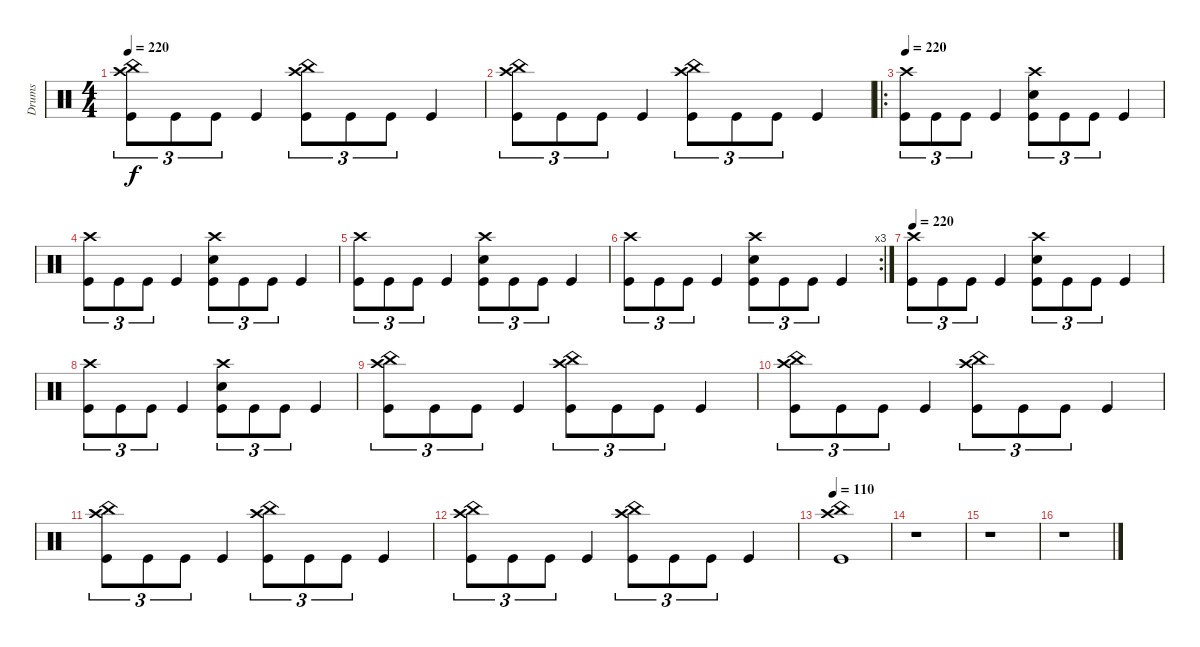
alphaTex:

\track ("Drums" "Drums") {instrument percussion}
\staff {score}
\articulation defaults
\ts (4 4)
\tempo 220
\clef neutral
\ks c
("Crash high (hit)" "China (hit)" "Kick (hit)").8{tu (3 2) dy f} "Kick (hit)".8{tu (3 2)} "Kick (hit)".8{tu (3 2)} "Kick (hit)".4 ("Crash high (hit)" "China (hit)" "Kick (hit)").8{tu (3 2)} "Kick (hit)".8{tu (3 2)} "Kick (hit)".8{tu (3 2)} "Kick (hit)".4 |
("Crash high (hit)" "China (hit)" "Kick (hit)").8{tu (3 2)} "Kick (hit)".8{tu (3 2)} "Kick (hit)".8{tu (3 2)} "Kick (hit)".4 ("Crash high (hit)" "China (hit)" "Kick (hit)").8{tu (3 2)} "Kick (hit)".8{tu (3 2)} "Kick (hit)".8{tu (3 2)} "Kick (hit)".4 |
\ro
\tempo 220
("Crash high (hit)" "Kick (hit)").8{tu (3 2)} "Kick (hit)".8{tu (3 2)} "Kick (hit)".8{tu (3 2)} "Kick (hit)".4 ("Crash high (hit)" "Snare (hit) 2" "Kick (hit)").8{tu (3 2)} "Kick (hit)".8{tu (3 2)} "Kick (hit)".8{tu (3 2)} "Kick (hit)".4 |
("Crash high (hit)" "Kick (hit)").8{tu (3 2)} "Kick (hit)".8{tu (3 2)} "Kick (hit)".8{tu (3 2)} "Kick (hit)".4 ("Crash high (hit)" "Snare (hit) 2" "Kick (hit)").8{tu (3 2)} "Kick (hit)".8{tu (3 2)} "Kick (hit)".8{tu (3 2)} "Kick (hit)".4 |
("Crash high (hit)" "Kick (hit)").8{tu (3 2)} "Kick (hit)".8{tu (3 2)} "Kick (hit)".8{tu (3 2)} "Kick (hit)".4 ("Crash high (hit)" "Snare (hit) 2" "Kick (hit)").8{tu (3 2)} "Kick (hit)".8{tu (3 2)} "Kick (hit)".8{tu (3 2)} "Kick (hit)".4 |
\rc 3
("Crash high (hit)" "Kick (hit)").8{tu (3 2)} "Kick (hit)".8{tu (3 2)} "Kick (hit)".8{tu (3 2)} "Kick (hit)".4 ("Crash high (hit)" "Snare (hit) 2" "Kick (hit)").8{tu (3 2)} "Kick (hit)".8{tu (3 2)} "Kick (hit)".8{tu (3 2)} "Kick (hit)".4 |
\tempo 220
("Crash high (hit)" "Kick (hit)").8{tu (3 2)} "Kick (hit)".8{tu (3 2)} "Kick (hit)".8{tu (3 2)} "Kick (hit)".4 ("Crash high (hit)" "Snare (hit) 2" "Kick (hit)").8{tu (3 2)} "Kick (hit)".8{tu (3 2)} "Kick (hit)".8{tu (3 2)} "Kick (hit)".4 |
("Crash high (hit)" "Kick (hit)").8{tu (3 2)} "Kick (hit)".8{tu (3 2)} "Kick (hit)".8{tu (3 2)} "Kick (hit)".4 ("Crash high (hit)" "Snare (hit) 2" "Kick (hit)").8{tu (3 2)} "Kick (hit)".8{tu (3 2)} "Kick (hit)".8{tu (3 2)} "Kick (hit)".4 |
("Crash high (hit)" "China (hit)" "Kick (hit)").8{tu (3 2)} "Kick (hit)".8{tu (3 2)} "Kick (hit)".8{tu (3 2)} "Kick (hit)".4 ("Crash high (hit)" "China (hit)" "Kick (hit)").8{tu (3 2)} "Kick (hit)".8{tu (3 2)} "Kick (hit)".8{tu (3 2)} "Kick (hit)".4 |
("Crash high (hit)" "China (hit)" "Kick (hit)").8{tu (3 2)} "Kick (hit)".8{tu (3 2)} "Kick (hit)".8{tu (3 2)} "Kick (hit)".4 ("Crash high (hit)" "China (hit)" "Kick (hit)").8{tu (3 2)} "Kick (hit)".8{tu (3 2)} "Kick (hit)".8{tu (3 2)} "Kick (hit)".4 |
("Crash high (hit)" "China (hit)" "Kick (hit)").8{tu (3 2)} "Kick (hit)".8{tu (3 2)} "Kick (hit)".8{tu (3 2)} "Kick (hit)".4 ("Crash high (hit)" "China (hit)" "Kick (hit)").8{tu (3 2)} "Kick (hit)".8{tu (3 2)} "Kick (hit)".8{tu (3 2)} "Kick (hit)".4 |
("Crash high (hit)" "China (hit)" "Kick (hit)").8{tu (3 2)} "Kick (hit)".8{tu (3 2)} "Kick (hit)".8{tu (3 2)} "Kick (hit)".4 ("Crash high (hit)" "China (hit)" "Kick (hit)").8{tu (3 2)} "Kick (hit)".8{tu (3 2)} "Kick (hit)".8{tu (3 2)} "Kick (hit)".4 |
\tempo 110
("Crash high (hit)" "China (hit)" "Kick (hit)").1 |
r.1 |
r.1 |
r.1
